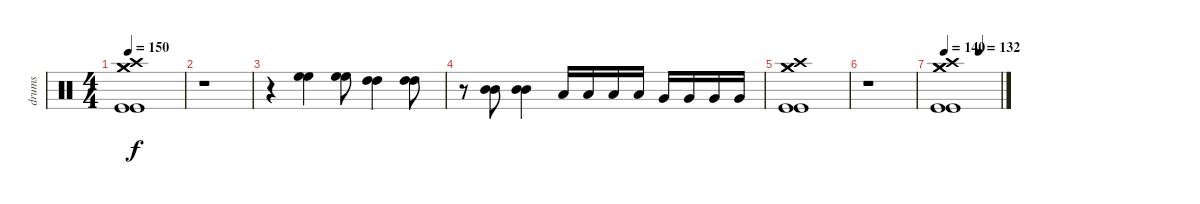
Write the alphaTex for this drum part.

\track ("drums" "drums") {instrument percussion}
\staff {score}
\articulation defaults
\ts (4 4)
\tempo 150
\clef neutral
\ks c
("Crash high (hit)" "Kick (hit)" "Kick (hit)" "Crash medium (hit)" "Crash medium (hit)").1{dy f} |
r.1 |
r.4 ("High Floor Tom (hit)" "High Floor Tom (hit)").4 ("High Floor Tom (hit)" "High Floor Tom (hit)").8 ("High Tom (hit)" "High Tom (hit)").4 ("High Tom (hit)" "High Tom (hit)").8 |
r.8 ("Mid Tom (hit)" "Mid Tom (hit)").8 ("Mid Tom (hit)" "Mid Tom (hit)").4 "Low Tom (hit)".16 "Low Tom (hit)".16 "Low Tom (hit)".16 "Low Tom (hit)".16 "Very Low Tom (hit)".16 "Very Low Tom (hit)".16 "Very Low Tom (hit)".16 "Very Low Tom (hit)".16 |
("Crash high (hit)" "Kick (hit)" "Kick (hit)" "Crash medium (hit)" "Crash medium (hit)").1 |
r.1 |
\tempo 140
\tempo (132 0.625)
("Crash high (hit)" "Kick (hit)" "Kick (hit)" "Crash medium (hit)" "Crash medium (hit)").1
